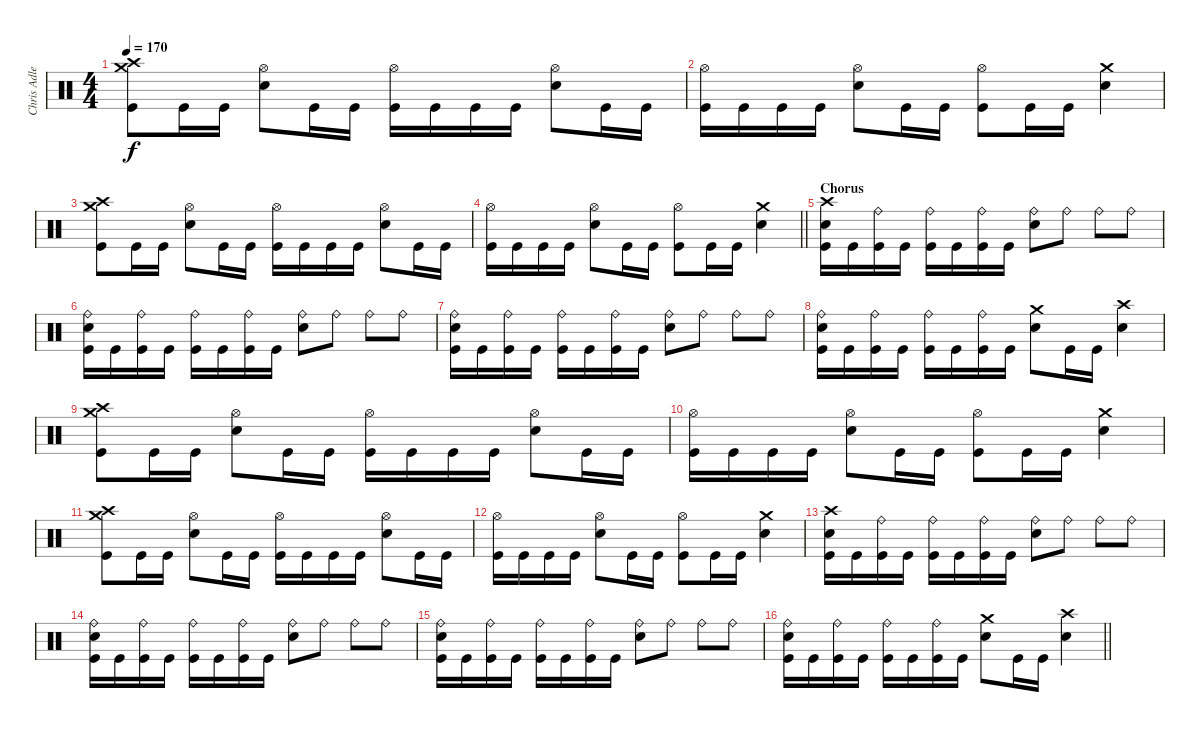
\track ("Chris Adler" "Chris Adle") {instrument percussion}
\staff {score}
\articulation defaults
\ts (4 4)
\tempo 170
\clef neutral
\ks c
("Kick (hit)" "Crash medium (hit)" "Crash high (hit)").8{dy f} "Kick (hit)".16 "Kick (hit)".16 ("Snare (hit) 2" "Hi-Hat (open)").8 "Kick (hit)".16 "Kick (hit)".16 ("Kick (hit)" "Hi-Hat (open)").16 "Kick (hit)".16 "Kick (hit)".16 "Kick (hit)".16 ("Snare (hit) 2" "Hi-Hat (open)").8 "Kick (hit)".16 "Kick (hit)".16 |
("Kick (hit)" "Hi-Hat (open)").16 "Kick (hit)".16 "Kick (hit)".16 "Kick (hit)".16 ("Snare (hit) 2" "Hi-Hat (open)").8 "Kick (hit)".16 "Kick (hit)".16 ("Kick (hit)" "Hi-Hat (open)").8 "Kick (hit)".16 "Kick (hit)".16 ("Crash medium (hit)" "Snare (hit) 2").4 |
("Kick (hit)" "Crash medium (hit)" "Crash high (hit)").8 "Kick (hit)".16 "Kick (hit)".16 ("Snare (hit) 2" "Hi-Hat (open)").8 "Kick (hit)".16 "Kick (hit)".16 ("Kick (hit)" "Hi-Hat (open)").16 "Kick (hit)".16 "Kick (hit)".16 "Kick (hit)".16 ("Snare (hit) 2" "Hi-Hat (open)").8 "Kick (hit)".16 "Kick (hit)".16 |
\barLineRight lightlight
("Kick (hit)" "Hi-Hat (open)").16 "Kick (hit)".16 "Kick (hit)".16 "Kick (hit)".16 ("Snare (hit) 2" "Hi-Hat (open)").8 "Kick (hit)".16 "Kick (hit)".16 ("Kick (hit)" "Hi-Hat (open)").8 "Kick (hit)".16 "Kick (hit)".16 ("Crash medium (hit)" "Snare (hit) 2").4 |
\section ("" "Chorus")
("Crash high (hit)" "Snare (hit) 2" "Kick (hit)").16 "Kick (hit)".16 ("Kick (hit)" "Ride (bell)").16 "Kick (hit)".16 ("Kick (hit)" "Ride (bell)").16 "Kick (hit)".16 ("Kick (hit)" "Ride (bell)").16 "Kick (hit)".16 ("Ride (bell)" "Snare (hit) 2").8 "Ride (bell)".8 "Ride (bell)".8 "Ride (bell)".8 |
("Ride (bell)" "Snare (hit) 2" "Kick (hit)").16 "Kick (hit)".16 ("Kick (hit)" "Ride (bell)").16 "Kick (hit)".16 ("Kick (hit)" "Ride (bell)").16 "Kick (hit)".16 ("Kick (hit)" "Ride (bell)").16 "Kick (hit)".16 ("Ride (bell)" "Snare (hit) 2").8 "Ride (bell)".8 "Ride (bell)".8 "Ride (bell)".8 |
("Ride (bell)" "Snare (hit) 2" "Kick (hit)").16 "Kick (hit)".16 ("Kick (hit)" "Ride (bell)").16 "Kick (hit)".16 ("Kick (hit)" "Ride (bell)").16 "Kick (hit)".16 ("Kick (hit)" "Ride (bell)").16 "Kick (hit)".16 ("Ride (bell)" "Snare (hit) 2").8 "Ride (bell)".8 "Ride (bell)".8 "Ride (bell)".8 |
("Ride (bell)" "Snare (hit) 2" "Kick (hit)").16 "Kick (hit)".16 ("Kick (hit)" "Ride (bell)").16 "Kick (hit)".16 ("Kick (hit)" "Ride (bell)").16 "Kick (hit)".16 ("Kick (hit)" "Ride (bell)").16 "Kick (hit)".16 ("Crash medium (hit)" "Snare (hit) 2").8 "Kick (hit)".16 "Kick (hit)".16 ("Crash high (hit)" "Snare (hit) 2").4 |
("Kick (hit)" "Crash medium (hit)" "Crash high (hit)").8 "Kick (hit)".16 "Kick (hit)".16 ("Snare (hit) 2" "Hi-Hat (open)").8 "Kick (hit)".16 "Kick (hit)".16 ("Kick (hit)" "Hi-Hat (open)").16 "Kick (hit)".16 "Kick (hit)".16 "Kick (hit)".16 ("Snare (hit) 2" "Hi-Hat (open)").8 "Kick (hit)".16 "Kick (hit)".16 |
("Kick (hit)" "Hi-Hat (open)").16 "Kick (hit)".16 "Kick (hit)".16 "Kick (hit)".16 ("Snare (hit) 2" "Hi-Hat (open)").8 "Kick (hit)".16 "Kick (hit)".16 ("Kick (hit)" "Hi-Hat (open)").8 "Kick (hit)".16 "Kick (hit)".16 ("Crash medium (hit)" "Snare (hit) 2").4 |
("Kick (hit)" "Crash medium (hit)" "Crash high (hit)").8 "Kick (hit)".16 "Kick (hit)".16 ("Snare (hit) 2" "Hi-Hat (open)").8 "Kick (hit)".16 "Kick (hit)".16 ("Kick (hit)" "Hi-Hat (open)").16 "Kick (hit)".16 "Kick (hit)".16 "Kick (hit)".16 ("Snare (hit) 2" "Hi-Hat (open)").8 "Kick (hit)".16 "Kick (hit)".16 |
("Kick (hit)" "Hi-Hat (open)").16 "Kick (hit)".16 "Kick (hit)".16 "Kick (hit)".16 ("Snare (hit) 2" "Hi-Hat (open)").8 "Kick (hit)".16 "Kick (hit)".16 ("Kick (hit)" "Hi-Hat (open)").8 "Kick (hit)".16 "Kick (hit)".16 ("Crash medium (hit)" "Snare (hit) 2").4 |
("Crash high (hit)" "Snare (hit) 2" "Kick (hit)").16 "Kick (hit)".16 ("Kick (hit)" "Ride (bell)").16 "Kick (hit)".16 ("Kick (hit)" "Ride (bell)").16 "Kick (hit)".16 ("Kick (hit)" "Ride (bell)").16 "Kick (hit)".16 ("Ride (bell)" "Snare (hit) 2").8 "Ride (bell)".8 "Ride (bell)".8 "Ride (bell)".8 |
("Ride (bell)" "Snare (hit) 2" "Kick (hit)").16 "Kick (hit)".16 ("Kick (hit)" "Ride (bell)").16 "Kick (hit)".16 ("Kick (hit)" "Ride (bell)").16 "Kick (hit)".16 ("Kick (hit)" "Ride (bell)").16 "Kick (hit)".16 ("Ride (bell)" "Snare (hit) 2").8 "Ride (bell)".8 "Ride (bell)".8 "Ride (bell)".8 |
("Ride (bell)" "Snare (hit) 2" "Kick (hit)").16 "Kick (hit)".16 ("Kick (hit)" "Ride (bell)").16 "Kick (hit)".16 ("Kick (hit)" "Ride (bell)").16 "Kick (hit)".16 ("Kick (hit)" "Ride (bell)").16 "Kick (hit)".16 ("Ride (bell)" "Snare (hit) 2").8 "Ride (bell)".8 "Ride (bell)".8 "Ride (bell)".8 |
\barLineRight lightlight
("Ride (bell)" "Snare (hit) 2" "Kick (hit)").16 "Kick (hit)".16 ("Kick (hit)" "Ride (bell)").16 "Kick (hit)".16 ("Kick (hit)" "Ride (bell)").16 "Kick (hit)".16 ("Kick (hit)" "Ride (bell)").16 "Kick (hit)".16 ("Crash medium (hit)" "Snare (hit) 2").8 "Kick (hit)".16 "Kick (hit)".16 ("Crash high (hit)" "Snare (hit) 2").4
